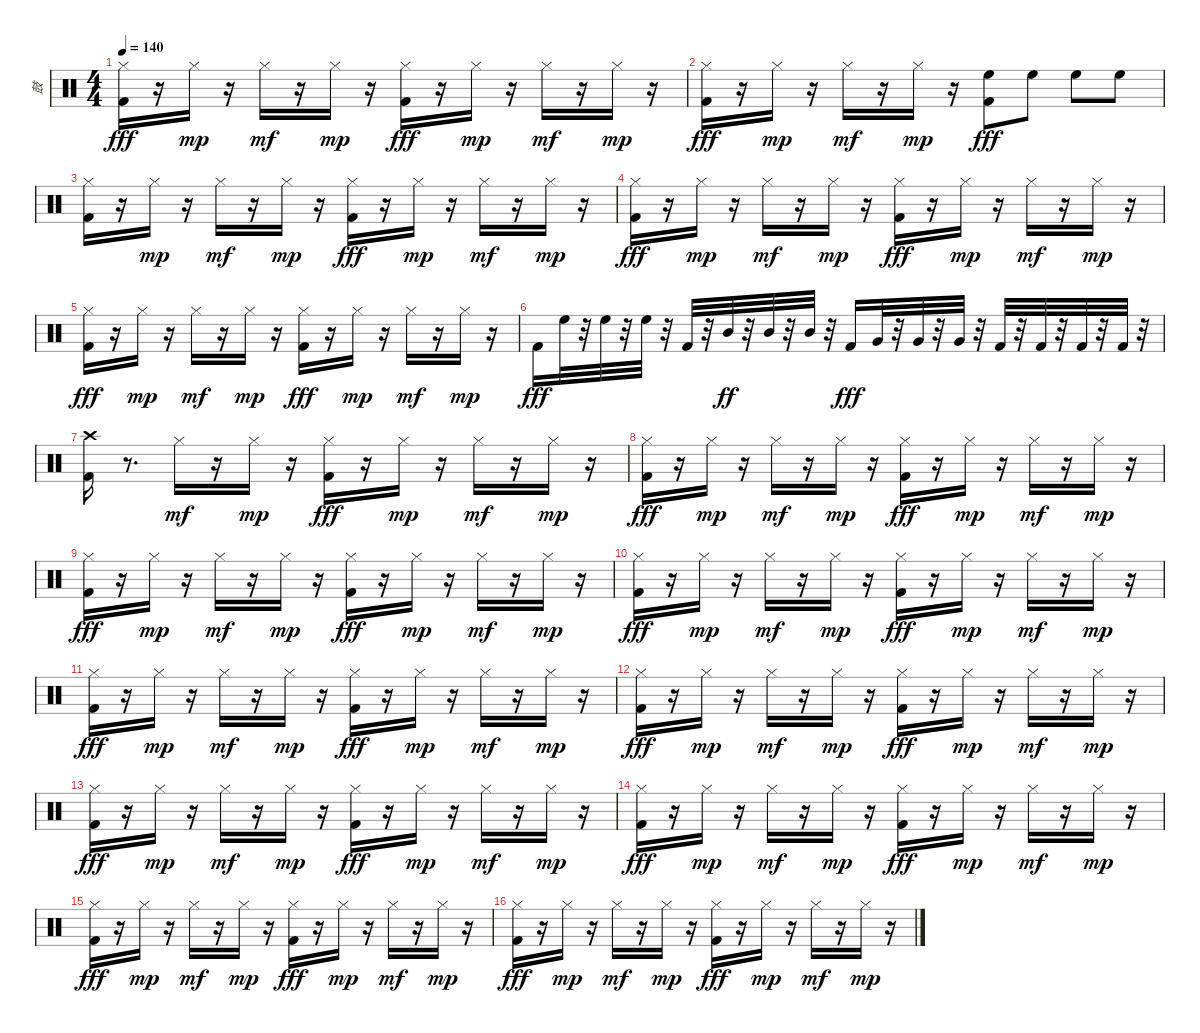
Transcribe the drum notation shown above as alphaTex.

\track ("鼓" "鼓") {instrument percussion}
\staff {score}
\articulation defaults
\ts (4 4)
\tempo 140
\clef neutral
\ks c
("Hi-Hat (closed)" "Kick (hit) 2").16{dy fff} r.16 "Hi-Hat (closed)".16{dy mp} r.16 "Hi-Hat (closed)".16{dy mf} r.16 "Hi-Hat (closed)".16{dy mp} r.16 ("Hi-Hat (closed)" "Kick (hit) 2").16{dy fff} r.16 "Hi-Hat (closed)".16{dy mp} r.16 "Hi-Hat (closed)".16{dy mf} r.16 "Hi-Hat (closed)".16{dy mp} r.16 |
("Hi-Hat (closed)" "Kick (hit) 2").16{dy fff} r.16 "Hi-Hat (closed)".16{dy mp} r.16 "Hi-Hat (closed)".16{dy mf} r.16 "Hi-Hat (closed)".16{dy mp} r.16 ("High Floor Tom (hit)" "Kick (hit) 2").8{dy fff} "High Floor Tom (hit)".8 "High Floor Tom (hit)".8 "High Floor Tom (hit)".8 |
("Hi-Hat (closed)" "Kick (hit) 2").16 r.16 "Hi-Hat (closed)".16{dy mp} r.16 "Hi-Hat (closed)".16{dy mf} r.16 "Hi-Hat (closed)".16{dy mp} r.16 ("Hi-Hat (closed)" "Kick (hit) 2").16{dy fff} r.16 "Hi-Hat (closed)".16{dy mp} r.16 "Hi-Hat (closed)".16{dy mf} r.16 "Hi-Hat (closed)".16{dy mp} r.16 |
("Hi-Hat (closed)" "Kick (hit) 2").16{dy fff} r.16 "Hi-Hat (closed)".16{dy mp} r.16 "Hi-Hat (closed)".16{dy mf} r.16 "Hi-Hat (closed)".16{dy mp} r.16 ("Hi-Hat (closed)" "Kick (hit) 2").16{dy fff} r.16 "Hi-Hat (closed)".16{dy mp} r.16 "Hi-Hat (closed)".16{dy mf} r.16 "Hi-Hat (closed)".16{dy mp} r.16 |
("Hi-Hat (closed)" "Kick (hit) 2").16{dy fff} r.16 "Hi-Hat (closed)".16{dy mp} r.16 "Hi-Hat (closed)".16{dy mf} r.16 "Hi-Hat (closed)".16{dy mp} r.16 ("Hi-Hat (closed)" "Kick (hit) 2").16{dy fff} r.16 "Hi-Hat (closed)".16{dy mp} r.16 "Hi-Hat (closed)".16{dy mf} r.16 "Hi-Hat (closed)".16{dy mp} r.16 |
"Kick (hit) 2".16{dy fff} "High Floor Tom (hit)".32 r.32 "High Floor Tom (hit)".32 r.32 "High Floor Tom (hit)".32 r.32 "Kick (hit) 2".32 r.32 "Mid Tom (hit)".32{dy ff} r.32 "Mid Tom (hit)".32 r.32 "Mid Tom (hit)".32 r.32 "Kick (hit) 2".16{dy fff} "Very Low Tom (hit)".32 r.32 "Very Low Tom (hit)".32 r.32 "Very Low Tom (hit)".32 r.32 "Kick (hit) 2".32 r.32 "Kick (hit) 2".32 r.32 "Kick (hit) 2".32 r.32 "Kick (hit) 2".32 r.32 |
("Crash high (hit)" "Kick (hit) 2").16 r.8{d} "Hi-Hat (closed)".16{dy mf} r.16 "Hi-Hat (closed)".16{dy mp} r.16 ("Hi-Hat (closed)" "Kick (hit) 2").16{dy fff} r.16 "Hi-Hat (closed)".16{dy mp} r.16 "Hi-Hat (closed)".16{dy mf} r.16 "Hi-Hat (closed)".16{dy mp} r.16 |
("Hi-Hat (closed)" "Kick (hit) 2").16{dy fff} r.16 "Hi-Hat (closed)".16{dy mp} r.16 "Hi-Hat (closed)".16{dy mf} r.16 "Hi-Hat (closed)".16{dy mp} r.16 ("Hi-Hat (closed)" "Kick (hit) 2").16{dy fff} r.16 "Hi-Hat (closed)".16{dy mp} r.16 "Hi-Hat (closed)".16{dy mf} r.16 "Hi-Hat (closed)".16{dy mp} r.16 |
("Hi-Hat (closed)" "Kick (hit) 2").16{dy fff} r.16 "Hi-Hat (closed)".16{dy mp} r.16 "Hi-Hat (closed)".16{dy mf} r.16 "Hi-Hat (closed)".16{dy mp} r.16 ("Hi-Hat (closed)" "Kick (hit) 2").16{dy fff} r.16 "Hi-Hat (closed)".16{dy mp} r.16 "Hi-Hat (closed)".16{dy mf} r.16 "Hi-Hat (closed)".16{dy mp} r.16 |
("Hi-Hat (closed)" "Kick (hit) 2").16{dy fff} r.16 "Hi-Hat (closed)".16{dy mp} r.16 "Hi-Hat (closed)".16{dy mf} r.16 "Hi-Hat (closed)".16{dy mp} r.16 ("Hi-Hat (closed)" "Kick (hit) 2").16{dy fff} r.16 "Hi-Hat (closed)".16{dy mp} r.16 "Hi-Hat (closed)".16{dy mf} r.16 "Hi-Hat (closed)".16{dy mp} r.16 |
("Hi-Hat (closed)" "Kick (hit) 2").16{dy fff} r.16 "Hi-Hat (closed)".16{dy mp} r.16 "Hi-Hat (closed)".16{dy mf} r.16 "Hi-Hat (closed)".16{dy mp} r.16 ("Hi-Hat (closed)" "Kick (hit) 2").16{dy fff} r.16 "Hi-Hat (closed)".16{dy mp} r.16 "Hi-Hat (closed)".16{dy mf} r.16 "Hi-Hat (closed)".16{dy mp} r.16 |
("Hi-Hat (closed)" "Kick (hit) 2").16{dy fff} r.16 "Hi-Hat (closed)".16{dy mp} r.16 "Hi-Hat (closed)".16{dy mf} r.16 "Hi-Hat (closed)".16{dy mp} r.16 ("Hi-Hat (closed)" "Kick (hit) 2").16{dy fff} r.16 "Hi-Hat (closed)".16{dy mp} r.16 "Hi-Hat (closed)".16{dy mf} r.16 "Hi-Hat (closed)".16{dy mp} r.16 |
("Hi-Hat (closed)" "Kick (hit) 2").16{dy fff} r.16 "Hi-Hat (closed)".16{dy mp} r.16 "Hi-Hat (closed)".16{dy mf} r.16 "Hi-Hat (closed)".16{dy mp} r.16 ("Hi-Hat (closed)" "Kick (hit) 2").16{dy fff} r.16 "Hi-Hat (closed)".16{dy mp} r.16 "Hi-Hat (closed)".16{dy mf} r.16 "Hi-Hat (closed)".16{dy mp} r.16 |
("Hi-Hat (closed)" "Kick (hit) 2").16{dy fff} r.16 "Hi-Hat (closed)".16{dy mp} r.16 "Hi-Hat (closed)".16{dy mf} r.16 "Hi-Hat (closed)".16{dy mp} r.16 ("Hi-Hat (closed)" "Kick (hit) 2").16{dy fff} r.16 "Hi-Hat (closed)".16{dy mp} r.16 "Hi-Hat (closed)".16{dy mf} r.16 "Hi-Hat (closed)".16{dy mp} r.16 |
("Hi-Hat (closed)" "Kick (hit) 2").16{dy fff} r.16 "Hi-Hat (closed)".16{dy mp} r.16 "Hi-Hat (closed)".16{dy mf} r.16 "Hi-Hat (closed)".16{dy mp} r.16 ("Hi-Hat (closed)" "Kick (hit) 2").16{dy fff} r.16 "Hi-Hat (closed)".16{dy mp} r.16 "Hi-Hat (closed)".16{dy mf} r.16 "Hi-Hat (closed)".16{dy mp} r.16 |
("Hi-Hat (closed)" "Kick (hit) 2").16{dy fff} r.16 "Hi-Hat (closed)".16{dy mp} r.16 "Hi-Hat (closed)".16{dy mf} r.16 "Hi-Hat (closed)".16{dy mp} r.16 ("Hi-Hat (closed)" "Kick (hit) 2").16{dy fff} r.16 "Hi-Hat (closed)".16{dy mp} r.16 "Hi-Hat (closed)".16{dy mf} r.16 "Hi-Hat (closed)".16{dy mp} r.16
